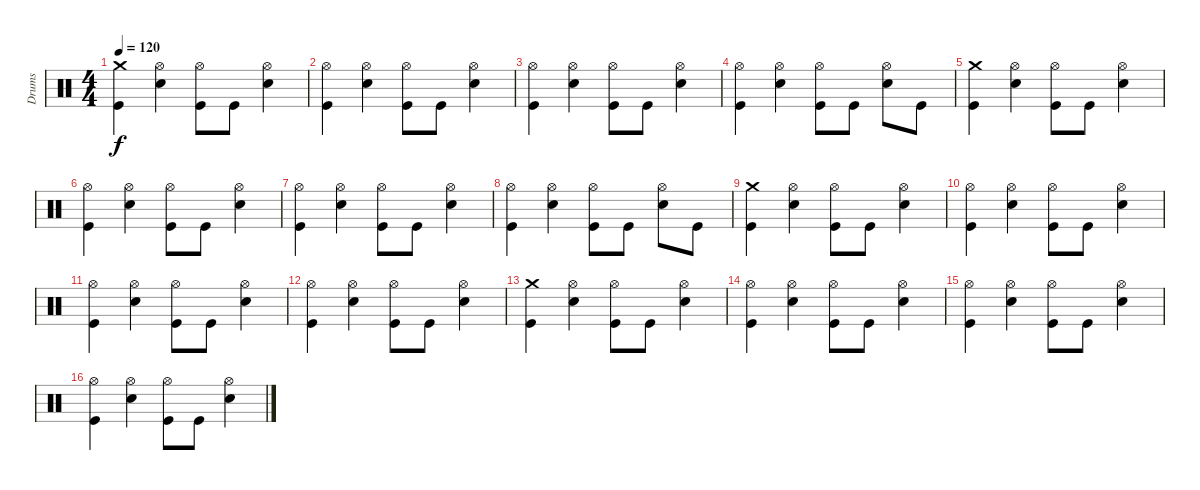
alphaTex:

\track ("Drums" "Drums") {instrument percussion}
\staff {score}
\articulation defaults
\ts (4 4)
\tempo 120
\clef neutral
\ks c
("Crash medium (hit)" "Kick (hit)").4{dy f} ("Hi-Hat (open)" "Snare (hit) 2").4 ("Hi-Hat (open)" "Kick (hit)").8 "Kick (hit)".8 ("Hi-Hat (open)" "Snare (hit) 2").4 |
("Hi-Hat (open)" "Kick (hit)").4 ("Hi-Hat (open)" "Snare (hit) 2").4 ("Hi-Hat (open)" "Kick (hit)").8 "Kick (hit)".8 ("Hi-Hat (open)" "Snare (hit) 2").4 |
("Hi-Hat (open)" "Kick (hit)").4 ("Hi-Hat (open)" "Snare (hit) 2").4 ("Hi-Hat (open)" "Kick (hit)").8 "Kick (hit)".8 ("Hi-Hat (open)" "Snare (hit) 2").4 |
("Hi-Hat (open)" "Kick (hit)").4 ("Hi-Hat (open)" "Snare (hit) 2").4 ("Hi-Hat (open)" "Kick (hit)").8 "Kick (hit)".8 ("Hi-Hat (open)" "Snare (hit) 2").8 "Kick (hit)".8 |
("Crash medium (hit)" "Kick (hit)").4 ("Hi-Hat (open)" "Snare (hit) 2").4 ("Hi-Hat (open)" "Kick (hit)").8 "Kick (hit)".8 ("Hi-Hat (open)" "Snare (hit) 2").4 |
("Hi-Hat (open)" "Kick (hit)").4 ("Hi-Hat (open)" "Snare (hit) 2").4 ("Hi-Hat (open)" "Kick (hit)").8 "Kick (hit)".8 ("Hi-Hat (open)" "Snare (hit) 2").4 |
("Hi-Hat (open)" "Kick (hit)").4 ("Hi-Hat (open)" "Snare (hit) 2").4 ("Hi-Hat (open)" "Kick (hit)").8 "Kick (hit)".8 ("Hi-Hat (open)" "Snare (hit) 2").4 |
("Hi-Hat (open)" "Kick (hit)").4 ("Hi-Hat (open)" "Snare (hit) 2").4 ("Hi-Hat (open)" "Kick (hit)").8 "Kick (hit)".8 ("Hi-Hat (open)" "Snare (hit) 2").8 "Kick (hit)".8 |
("Crash medium (hit)" "Kick (hit)").4 ("Hi-Hat (open)" "Snare (hit) 2").4 ("Hi-Hat (open)" "Kick (hit)").8 "Kick (hit)".8 ("Hi-Hat (open)" "Snare (hit) 2").4 |
("Hi-Hat (open)" "Kick (hit)").4 ("Hi-Hat (open)" "Snare (hit) 2").4 ("Hi-Hat (open)" "Kick (hit)").8 "Kick (hit)".8 ("Hi-Hat (open)" "Snare (hit) 2").4 |
("Hi-Hat (open)" "Kick (hit)").4 ("Hi-Hat (open)" "Snare (hit) 2").4 ("Hi-Hat (open)" "Kick (hit)").8 "Kick (hit)".8 ("Hi-Hat (open)" "Snare (hit) 2").4 |
("Hi-Hat (open)" "Kick (hit)").4 ("Hi-Hat (open)" "Snare (hit) 2").4 ("Hi-Hat (open)" "Kick (hit)").8 "Kick (hit)".8 ("Hi-Hat (open)" "Snare (hit) 2").4 |
("Crash medium (hit)" "Kick (hit)").4 ("Hi-Hat (open)" "Snare (hit) 2").4 ("Hi-Hat (open)" "Kick (hit)").8 "Kick (hit)".8 ("Hi-Hat (open)" "Snare (hit) 2").4 |
("Hi-Hat (open)" "Kick (hit)").4 ("Hi-Hat (open)" "Snare (hit) 2").4 ("Hi-Hat (open)" "Kick (hit)").8 "Kick (hit)".8 ("Hi-Hat (open)" "Snare (hit) 2").4 |
("Hi-Hat (open)" "Kick (hit)").4 ("Hi-Hat (open)" "Snare (hit) 2").4 ("Hi-Hat (open)" "Kick (hit)").8 "Kick (hit)".8 ("Hi-Hat (open)" "Snare (hit) 2").4 |
("Hi-Hat (open)" "Kick (hit)").4 ("Hi-Hat (open)" "Snare (hit) 2").4 ("Hi-Hat (open)" "Kick (hit)").8 "Kick (hit)".8 ("Hi-Hat (open)" "Snare (hit) 2").4
